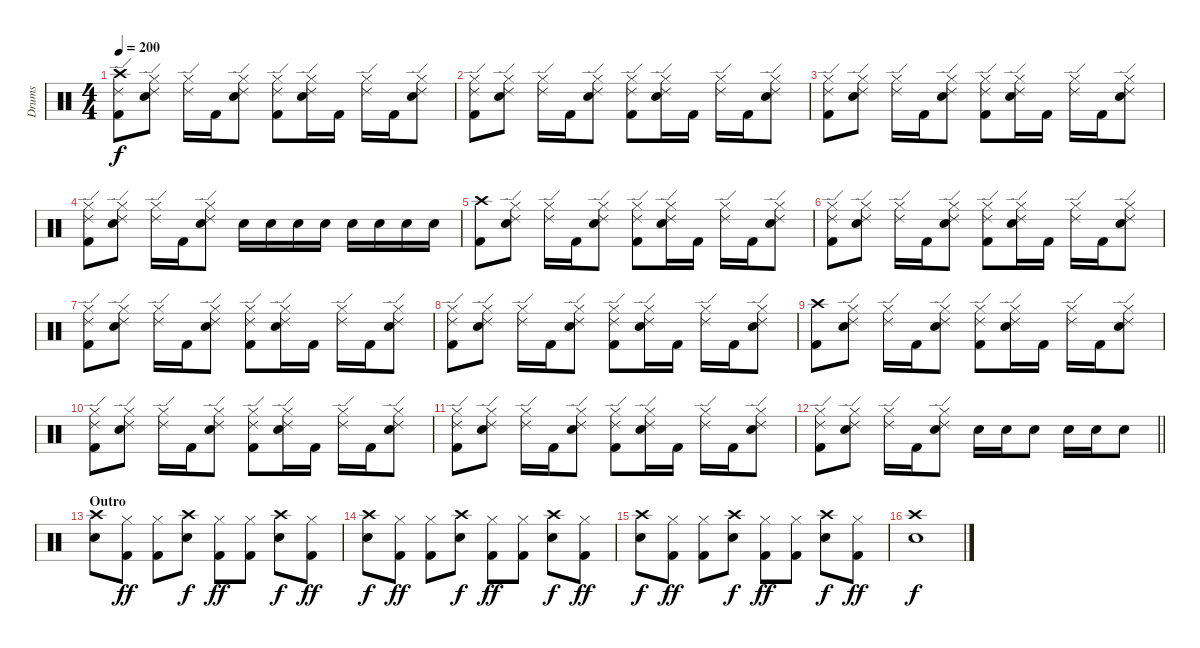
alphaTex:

\track ("Drums" "Drums") {instrument percussion}
\staff {score}
\articulation defaults
\ts (4 4)
\tempo 200
\clef neutral
\ks c
("Crash high (hit)" "Ride (edge) 2" "Kick (hit) 2").8{dy f} ("Hi-Hat (closed)" "Ride (edge) 2" "Electric Snare (hit)").8 ("Hi-Hat (closed)" "Ride (edge) 2").16 "Kick (hit) 2".16 ("Hi-Hat (closed)" "Ride (edge) 2" "Electric Snare (hit)").8 ("Hi-Hat (closed)" "Ride (edge) 2" "Kick (hit) 2").8 ("Hi-Hat (closed)" "Ride (edge) 2" "Electric Snare (hit)").16 "Kick (hit) 2".16 ("Hi-Hat (closed)" "Ride (edge) 2").16 "Kick (hit) 2".16 ("Hi-Hat (closed)" "Ride (edge) 2" "Electric Snare (hit)").8 |
("Hi-Hat (closed)" "Ride (edge) 2" "Kick (hit) 2").8 ("Hi-Hat (closed)" "Ride (edge) 2" "Electric Snare (hit)").8 ("Hi-Hat (closed)" "Ride (edge) 2").16 "Kick (hit) 2".16 ("Hi-Hat (closed)" "Ride (edge) 2" "Electric Snare (hit)").8 ("Hi-Hat (closed)" "Ride (edge) 2" "Kick (hit) 2").8 ("Hi-Hat (closed)" "Ride (edge) 2" "Electric Snare (hit)").16 "Kick (hit) 2".16 ("Hi-Hat (closed)" "Ride (edge) 2").16 "Kick (hit) 2".16 ("Hi-Hat (closed)" "Ride (edge) 2" "Electric Snare (hit)").8 |
("Hi-Hat (closed)" "Ride (edge) 2" "Kick (hit) 2").8 ("Hi-Hat (closed)" "Ride (edge) 2" "Electric Snare (hit)").8 ("Hi-Hat (closed)" "Ride (edge) 2").16 "Kick (hit) 2".16 ("Hi-Hat (closed)" "Ride (edge) 2" "Electric Snare (hit)").8 ("Hi-Hat (closed)" "Ride (edge) 2" "Kick (hit) 2").8 ("Hi-Hat (closed)" "Ride (edge) 2" "Electric Snare (hit)").16 "Kick (hit) 2".16 ("Hi-Hat (closed)" "Ride (edge) 2").16 "Kick (hit) 2".16 ("Hi-Hat (closed)" "Ride (edge) 2" "Electric Snare (hit)").8 |
("Hi-Hat (closed)" "Ride (edge) 2" "Kick (hit) 2").8 ("Hi-Hat (closed)" "Ride (edge) 2" "Electric Snare (hit)").8 ("Hi-Hat (closed)" "Ride (edge) 2").16 "Kick (hit) 2".16 ("Hi-Hat (closed)" "Ride (edge) 2" "Electric Snare (hit)").8 "Electric Snare (hit)".16 "Electric Snare (hit)".16 "Electric Snare (hit)".16 "Electric Snare (hit)".16 "Electric Snare (hit)".16 "Electric Snare (hit)".16 "Electric Snare (hit)".16 "Electric Snare (hit)".16 |
("Crash high (hit)" "Kick (hit) 2").8 ("Hi-Hat (closed)" "Ride (edge) 2" "Electric Snare (hit)").8 ("Hi-Hat (closed)" "Ride (edge) 2").16 "Kick (hit) 2".16 ("Hi-Hat (closed)" "Ride (edge) 2" "Electric Snare (hit)").8 ("Hi-Hat (closed)" "Ride (edge) 2" "Kick (hit) 2").8 ("Hi-Hat (closed)" "Ride (edge) 2" "Electric Snare (hit)").16 "Kick (hit) 2".16 ("Hi-Hat (closed)" "Ride (edge) 2").16 "Kick (hit) 2".16 ("Hi-Hat (closed)" "Ride (edge) 2" "Electric Snare (hit)").8 |
("Hi-Hat (closed)" "Ride (edge) 2" "Kick (hit) 2").8 ("Hi-Hat (closed)" "Ride (edge) 2" "Electric Snare (hit)").8 ("Hi-Hat (closed)" "Ride (edge) 2").16 "Kick (hit) 2".16 ("Hi-Hat (closed)" "Ride (edge) 2" "Electric Snare (hit)").8 ("Hi-Hat (closed)" "Ride (edge) 2" "Kick (hit) 2").8 ("Hi-Hat (closed)" "Ride (edge) 2" "Electric Snare (hit)").16 "Kick (hit) 2".16 ("Hi-Hat (closed)" "Ride (edge) 2").16 "Kick (hit) 2".16 ("Hi-Hat (closed)" "Ride (edge) 2" "Electric Snare (hit)").8 |
("Hi-Hat (closed)" "Ride (edge) 2" "Kick (hit) 2").8 ("Hi-Hat (closed)" "Ride (edge) 2" "Electric Snare (hit)").8 ("Hi-Hat (closed)" "Ride (edge) 2").16 "Kick (hit) 2".16 ("Hi-Hat (closed)" "Ride (edge) 2" "Electric Snare (hit)").8 ("Hi-Hat (closed)" "Ride (edge) 2" "Kick (hit) 2").8 ("Hi-Hat (closed)" "Ride (edge) 2" "Electric Snare (hit)").16 "Kick (hit) 2".16 ("Hi-Hat (closed)" "Ride (edge) 2").16 "Kick (hit) 2".16 ("Hi-Hat (closed)" "Ride (edge) 2" "Electric Snare (hit)").8 |
("Hi-Hat (closed)" "Ride (edge) 2" "Kick (hit) 2").8 ("Hi-Hat (closed)" "Ride (edge) 2" "Electric Snare (hit)").8 ("Hi-Hat (closed)" "Ride (edge) 2").16 "Kick (hit) 2".16 ("Hi-Hat (closed)" "Ride (edge) 2" "Electric Snare (hit)").8 ("Hi-Hat (closed)" "Ride (edge) 2" "Kick (hit) 2").8 ("Hi-Hat (closed)" "Ride (edge) 2" "Electric Snare (hit)").16 "Kick (hit) 2".16 ("Hi-Hat (closed)" "Ride (edge) 2").16 "Kick (hit) 2".16 ("Hi-Hat (closed)" "Ride (edge) 2" "Electric Snare (hit)").8 |
("Crash high (hit)" "Kick (hit) 2").8 ("Hi-Hat (closed)" "Ride (edge) 2" "Electric Snare (hit)").8 ("Hi-Hat (closed)" "Ride (edge) 2").16 "Kick (hit) 2".16 ("Hi-Hat (closed)" "Ride (edge) 2" "Electric Snare (hit)").8 ("Hi-Hat (closed)" "Ride (edge) 2" "Kick (hit) 2").8 ("Hi-Hat (closed)" "Ride (edge) 2" "Electric Snare (hit)").16 "Kick (hit) 2".16 ("Hi-Hat (closed)" "Ride (edge) 2").16 "Kick (hit) 2".16 ("Hi-Hat (closed)" "Ride (edge) 2" "Electric Snare (hit)").8 |
("Hi-Hat (closed)" "Ride (edge) 2" "Kick (hit) 2").8 ("Hi-Hat (closed)" "Ride (edge) 2" "Electric Snare (hit)").8 ("Hi-Hat (closed)" "Ride (edge) 2").16 "Kick (hit) 2".16 ("Hi-Hat (closed)" "Ride (edge) 2" "Electric Snare (hit)").8 ("Hi-Hat (closed)" "Ride (edge) 2" "Kick (hit) 2").8 ("Hi-Hat (closed)" "Ride (edge) 2" "Electric Snare (hit)").16 "Kick (hit) 2".16 ("Hi-Hat (closed)" "Ride (edge) 2").16 "Kick (hit) 2".16 ("Hi-Hat (closed)" "Ride (edge) 2" "Electric Snare (hit)").8 |
("Hi-Hat (closed)" "Ride (edge) 2" "Kick (hit) 2").8 ("Hi-Hat (closed)" "Ride (edge) 2" "Electric Snare (hit)").8 ("Hi-Hat (closed)" "Ride (edge) 2").16 "Kick (hit) 2".16 ("Hi-Hat (closed)" "Ride (edge) 2" "Electric Snare (hit)").8 ("Hi-Hat (closed)" "Ride (edge) 2" "Kick (hit) 2").8 ("Hi-Hat (closed)" "Ride (edge) 2" "Electric Snare (hit)").16 "Kick (hit) 2".16 ("Hi-Hat (closed)" "Ride (edge) 2").16 "Kick (hit) 2".16 ("Hi-Hat (closed)" "Ride (edge) 2" "Electric Snare (hit)").8 |
\barLineRight lightlight
("Hi-Hat (closed)" "Ride (edge) 2" "Kick (hit) 2").8 ("Hi-Hat (closed)" "Ride (edge) 2" "Electric Snare (hit)").8 ("Hi-Hat (closed)" "Ride (edge) 2").16 "Kick (hit) 2".16 ("Hi-Hat (closed)" "Ride (edge) 2" "Electric Snare (hit)").8 "Electric Snare (hit)".16 "Electric Snare (hit)".16 "Electric Snare (hit)".8 "Electric Snare (hit)".16 "Electric Snare (hit)".16 "Electric Snare (hit)".8 |
\section ("" "Outro")
("Crash high (hit)" "Electric Snare (hit)").8 ("Hi-Hat (closed)" "Kick (hit) 2").8{dy ff} ("Hi-Hat (closed)" "Kick (hit) 2").8 ("Crash high (hit)" "Electric Snare (hit)").8{dy f} ("Hi-Hat (closed)" "Kick (hit) 2").8{dy ff} ("Hi-Hat (closed)" "Kick (hit) 2").8 ("Crash high (hit)" "Electric Snare (hit)").8{dy f} ("Hi-Hat (closed)" "Kick (hit) 2").8{dy ff} |
("Crash high (hit)" "Electric Snare (hit)").8{dy f} ("Hi-Hat (closed)" "Kick (hit) 2").8{dy ff} ("Hi-Hat (closed)" "Kick (hit) 2").8 ("Crash high (hit)" "Electric Snare (hit)").8{dy f} ("Hi-Hat (closed)" "Kick (hit) 2").8{dy ff} ("Hi-Hat (closed)" "Kick (hit) 2").8 ("Crash high (hit)" "Electric Snare (hit)").8{dy f} ("Hi-Hat (closed)" "Kick (hit) 2").8{dy ff} |
("Crash high (hit)" "Electric Snare (hit)").8{dy f} ("Hi-Hat (closed)" "Kick (hit) 2").8{dy ff} ("Hi-Hat (closed)" "Kick (hit) 2").8 ("Crash high (hit)" "Electric Snare (hit)").8{dy f} ("Hi-Hat (closed)" "Kick (hit) 2").8{dy ff} ("Hi-Hat (closed)" "Kick (hit) 2").8 ("Crash high (hit)" "Electric Snare (hit)").8{dy f} ("Hi-Hat (closed)" "Kick (hit) 2").8{dy ff} |
("Crash high (hit)" "Electric Snare (hit)").1{dy f}
